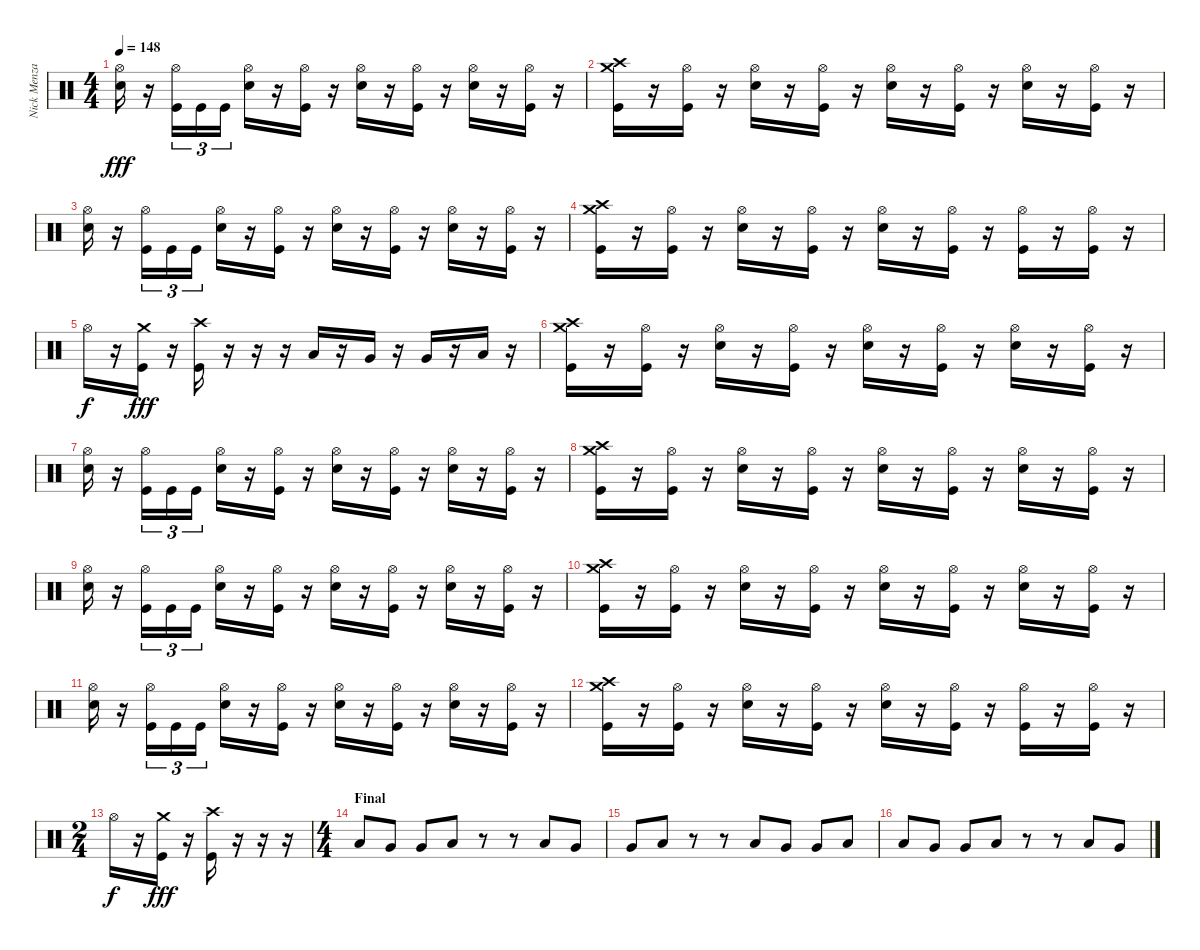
\track ("Nick Menza" "Nick Menza") {instrument percussion}
\staff {score}
\articulation defaults
\ts (4 4)
\tempo 148
\clef neutral
\ks c
("Snare (hit) 2" "Hi-Hat (open)").16{dy fff} r.16 ("Kick (hit)" "Hi-Hat (open)").16{tu (3 2)} "Kick (hit)".16{tu (3 2)} "Kick (hit)".16{tu (3 2)} ("Snare (hit) 2" "Hi-Hat (open)").16 r.16 ("Kick (hit)" "Hi-Hat (open)").16 r.16 ("Snare (hit) 2" "Hi-Hat (open)").16 r.16 ("Kick (hit)" "Hi-Hat (open)").16 r.16 ("Snare (hit) 2" "Hi-Hat (open)").16 r.16 ("Kick (hit)" "Hi-Hat (open)").16 r.16 |
("Kick (hit)" "Crash high (hit)" "Crash medium (hit)").16 r.16 ("Kick (hit)" "Hi-Hat (open)").16 r.16 ("Snare (hit) 2" "Hi-Hat (open)").16 r.16 ("Kick (hit)" "Hi-Hat (open)").16 r.16 ("Snare (hit) 2" "Hi-Hat (open)").16 r.16 ("Kick (hit)" "Hi-Hat (open)").16 r.16 ("Snare (hit) 2" "Hi-Hat (open)").16 r.16 ("Kick (hit)" "Hi-Hat (open)").16 r.16 |
("Snare (hit) 2" "Hi-Hat (open)").16 r.16 ("Kick (hit)" "Hi-Hat (open)").16{tu (3 2)} "Kick (hit)".16{tu (3 2)} "Kick (hit)".16{tu (3 2)} ("Snare (hit) 2" "Hi-Hat (open)").16 r.16 ("Kick (hit)" "Hi-Hat (open)").16 r.16 ("Snare (hit) 2" "Hi-Hat (open)").16 r.16 ("Kick (hit)" "Hi-Hat (open)").16 r.16 ("Snare (hit) 2" "Hi-Hat (open)").16 r.16 ("Kick (hit)" "Hi-Hat (open)").16 r.16 |
("Kick (hit)" "Crash high (hit)" "Crash medium (hit)").16 r.16 ("Kick (hit)" "Hi-Hat (open)").16 r.16 ("Snare (hit) 2" "Hi-Hat (open)").16 r.16 ("Kick (hit)" "Hi-Hat (open)").16 r.16 ("Snare (hit) 2" "Hi-Hat (open)").16 r.16 ("Kick (hit)" "Hi-Hat (open)").16 r.16 ("Kick (hit)" "Hi-Hat (open)").16 r.16 ("Kick (hit)" "Hi-Hat (open)").16 r.16 |
"Hi-Hat (open)".16{dy f} r.16 ("Kick (hit)" "Crash medium (hit)").16{dy fff} r.16 ("Kick (hit)" "Crash high (hit)").16 r.16 r.16 r.16 "Low Tom (hit)".16 r.16 "Very Low Tom (hit)".16 r.16 "Very Low Tom (hit)".16 r.16 "Low Floor Tom (hit)".16 r.16 |
("Kick (hit)" "Crash high (hit)" "Crash medium (hit)").16 r.16 ("Kick (hit)" "Hi-Hat (open)").16 r.16 ("Snare (hit) 2" "Hi-Hat (open)").16 r.16 ("Kick (hit)" "Hi-Hat (open)").16 r.16 ("Snare (hit) 2" "Hi-Hat (open)").16 r.16 ("Kick (hit)" "Hi-Hat (open)").16 r.16 ("Snare (hit) 2" "Hi-Hat (open)").16 r.16 ("Kick (hit)" "Hi-Hat (open)").16 r.16 |
("Snare (hit) 2" "Hi-Hat (open)").16 r.16 ("Kick (hit)" "Hi-Hat (open)").16{tu (3 2)} "Kick (hit)".16{tu (3 2)} "Kick (hit)".16{tu (3 2)} ("Snare (hit) 2" "Hi-Hat (open)").16 r.16 ("Kick (hit)" "Hi-Hat (open)").16 r.16 ("Snare (hit) 2" "Hi-Hat (open)").16 r.16 ("Kick (hit)" "Hi-Hat (open)").16 r.16 ("Snare (hit) 2" "Hi-Hat (open)").16 r.16 ("Kick (hit)" "Hi-Hat (open)").16 r.16 |
("Kick (hit)" "Crash high (hit)" "Crash medium (hit)").16 r.16 ("Kick (hit)" "Hi-Hat (open)").16 r.16 ("Snare (hit) 2" "Hi-Hat (open)").16 r.16 ("Kick (hit)" "Hi-Hat (open)").16 r.16 ("Snare (hit) 2" "Hi-Hat (open)").16 r.16 ("Kick (hit)" "Hi-Hat (open)").16 r.16 ("Snare (hit) 2" "Hi-Hat (open)").16 r.16 ("Kick (hit)" "Hi-Hat (open)").16 r.16 |
("Snare (hit) 2" "Hi-Hat (open)").16 r.16 ("Kick (hit)" "Hi-Hat (open)").16{tu (3 2)} "Kick (hit)".16{tu (3 2)} "Kick (hit)".16{tu (3 2)} ("Snare (hit) 2" "Hi-Hat (open)").16 r.16 ("Kick (hit)" "Hi-Hat (open)").16 r.16 ("Snare (hit) 2" "Hi-Hat (open)").16 r.16 ("Kick (hit)" "Hi-Hat (open)").16 r.16 ("Snare (hit) 2" "Hi-Hat (open)").16 r.16 ("Kick (hit)" "Hi-Hat (open)").16 r.16 |
("Kick (hit)" "Crash high (hit)" "Crash medium (hit)").16 r.16 ("Kick (hit)" "Hi-Hat (open)").16 r.16 ("Snare (hit) 2" "Hi-Hat (open)").16 r.16 ("Kick (hit)" "Hi-Hat (open)").16 r.16 ("Snare (hit) 2" "Hi-Hat (open)").16 r.16 ("Kick (hit)" "Hi-Hat (open)").16 r.16 ("Snare (hit) 2" "Hi-Hat (open)").16 r.16 ("Kick (hit)" "Hi-Hat (open)").16 r.16 |
("Snare (hit) 2" "Hi-Hat (open)").16 r.16 ("Kick (hit)" "Hi-Hat (open)").16{tu (3 2)} "Kick (hit)".16{tu (3 2)} "Kick (hit)".16{tu (3 2)} ("Snare (hit) 2" "Hi-Hat (open)").16 r.16 ("Kick (hit)" "Hi-Hat (open)").16 r.16 ("Snare (hit) 2" "Hi-Hat (open)").16 r.16 ("Kick (hit)" "Hi-Hat (open)").16 r.16 ("Snare (hit) 2" "Hi-Hat (open)").16 r.16 ("Kick (hit)" "Hi-Hat (open)").16 r.16 |
("Kick (hit)" "Crash high (hit)" "Crash medium (hit)").16 r.16 ("Kick (hit)" "Hi-Hat (open)").16 r.16 ("Snare (hit) 2" "Hi-Hat (open)").16 r.16 ("Kick (hit)" "Hi-Hat (open)").16 r.16 ("Snare (hit) 2" "Hi-Hat (open)").16 r.16 ("Kick (hit)" "Hi-Hat (open)").16 r.16 ("Kick (hit)" "Hi-Hat (open)").16 r.16 ("Kick (hit)" "Hi-Hat (open)").16 r.16 |
\ts (2 4)
"Hi-Hat (open)".16{dy f} r.16 ("Kick (hit)" "Crash medium (hit)").16{dy fff} r.16 ("Kick (hit)" "Crash high (hit)").16 r.16 r.16 r.16 |
\ts (4 4)
\section ("" "Final")
"Low Tom (hit)".8 "Very Low Tom (hit)".8 "Very Low Tom (hit)".8 "Low Floor Tom (hit)".8 r.8 r.8 "Low Tom (hit)".8 "Very Low Tom (hit)".8 |
"Very Low Tom (hit)".8 "Low Floor Tom (hit)".8 r.8 r.8 "Low Tom (hit)".8 "Very Low Tom (hit)".8 "Very Low Tom (hit)".8 "Low Floor Tom (hit)".8 |
"Low Tom (hit)".8 "Very Low Tom (hit)".8 "Very Low Tom (hit)".8 "Low Floor Tom (hit)".8 r.8 r.8 "Low Tom (hit)".8 "Very Low Tom (hit)".8
